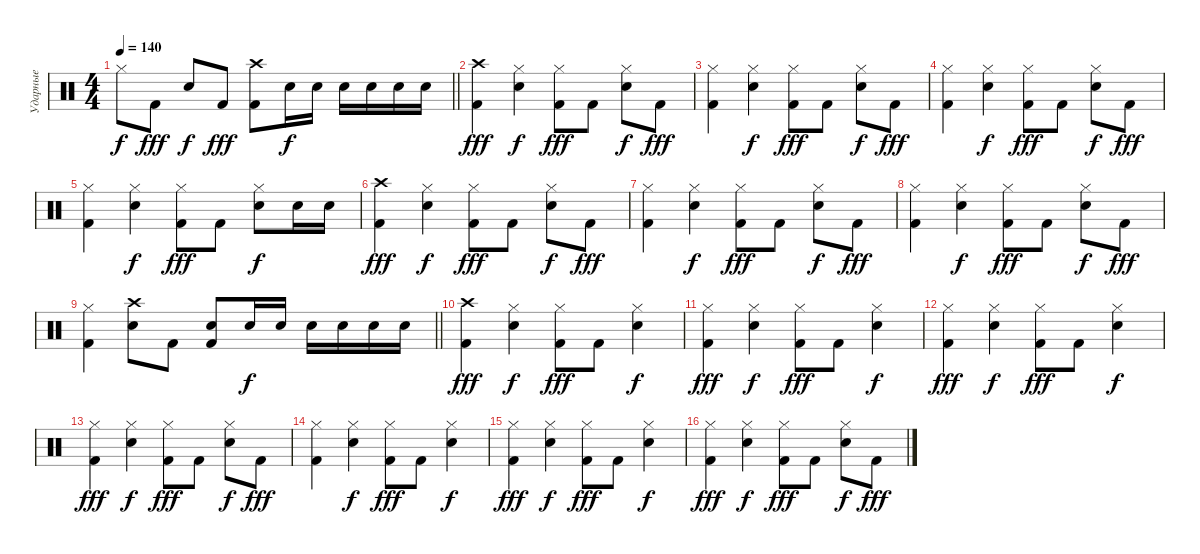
\track ("Ударные" "Ударные") {instrument percussion}
\staff {score}
\articulation defaults
\ts (4 4)
\tempo 140
\clef neutral
\barLineRight lightlight
\ks c "Hi-Hat (closed)".8{dy f} "Kick (hit) 2".8{dy fff} "Snare (hit) 2".8{dy f} "Kick (hit) 2".8{dy fff}
("Kick (hit) 2" "Crash high (hit)").8 "Snare (hit) 2".16{dy f} "Snare (hit) 2".16 "Snare (hit) 2".16 "Snare (hit) 2".16 "Snare (hit) 2".16 "Snare (hit) 2".16 |
("Kick (hit) 2" "Crash high (hit)").4{dy fff} ("Snare (hit) 2" "Hi-Hat (closed)").4{dy f} ("Kick (hit) 2" "Hi-Hat (closed)").8{dy fff} "Kick (hit) 2".8 ("Snare (hit) 2" "Hi-Hat (closed)").8{dy f} "Kick (hit) 2".8{dy fff} |
("Kick (hit) 2" "Hi-Hat (closed)").4 ("Snare (hit) 2" "Hi-Hat (closed)").4{dy f} ("Kick (hit) 2" "Hi-Hat (closed)").8{dy fff} "Kick (hit) 2".8 ("Snare (hit) 2" "Hi-Hat (closed)").8{dy f} "Kick (hit) 2".8{dy fff} |
("Kick (hit) 2" "Hi-Hat (closed)").4 ("Snare (hit) 2" "Hi-Hat (closed)").4{dy f} ("Kick (hit) 2" "Hi-Hat (closed)").8{dy fff} "Kick (hit) 2".8 ("Snare (hit) 2" "Hi-Hat (closed)").8{dy f} "Kick (hit) 2".8{dy fff} |
("Kick (hit) 2" "Hi-Hat (closed)").4 ("Snare (hit) 2" "Hi-Hat (closed)").4{dy f} ("Kick (hit) 2" "Hi-Hat (closed)").8{dy fff} "Kick (hit) 2".8 ("Snare (hit) 2" "Hi-Hat (closed)").8{dy f} "Snare (hit) 2".16 "Snare (hit) 2".16 |
("Kick (hit) 2" "Crash high (hit)").4{dy fff} ("Snare (hit) 2" "Hi-Hat (closed)").4{dy f} ("Kick (hit) 2" "Hi-Hat (closed)").8{dy fff} "Kick (hit) 2".8 ("Snare (hit) 2" "Hi-Hat (closed)").8{dy f} "Kick (hit) 2".8{dy fff} |
("Kick (hit) 2" "Hi-Hat (closed)").4 ("Snare (hit) 2" "Hi-Hat (closed)").4{dy f} ("Kick (hit) 2" "Hi-Hat (closed)").8{dy fff} "Kick (hit) 2".8 ("Snare (hit) 2" "Hi-Hat (closed)").8{dy f} "Kick (hit) 2".8{dy fff} |
("Kick (hit) 2" "Hi-Hat (closed)").4 ("Snare (hit) 2" "Hi-Hat (closed)").4{dy f} ("Kick (hit) 2" "Hi-Hat (closed)").8{dy fff} "Kick (hit) 2".8 ("Snare (hit) 2" "Hi-Hat (closed)").8{dy f} "Kick (hit) 2".8{dy fff} |
\barLineRight lightlight
("Kick (hit) 2" "Hi-Hat (closed)").4 ("Snare (hit) 2" "Crash high (hit)").8 "Kick (hit) 2".8 ("Kick (hit) 2" "Snare (hit) 2").8 "Snare (hit) 2".16{dy f} "Snare (hit) 2".16 "Snare (hit) 2".16 "Snare (hit) 2".16 "Snare (hit) 2".16 "Snare (hit) 2".16 |
("Kick (hit) 2" "Crash high (hit)").4{dy fff} ("Snare (hit) 2" "Hi-Hat (closed)").4{dy f} ("Kick (hit) 2" "Hi-Hat (closed)").8{dy fff} "Kick (hit) 2".8 ("Snare (hit) 2" "Hi-Hat (closed)").4{dy f} |
("Kick (hit) 2" "Hi-Hat (closed)").4{dy fff} ("Snare (hit) 2" "Hi-Hat (closed)").4{dy f} ("Kick (hit) 2" "Hi-Hat (closed)").8{dy fff} "Kick (hit) 2".8 ("Snare (hit) 2" "Hi-Hat (closed)").4{dy f} |
("Kick (hit) 2" "Hi-Hat (closed)").4{dy fff} ("Snare (hit) 2" "Hi-Hat (closed)").4{dy f} ("Kick (hit) 2" "Hi-Hat (closed)").8{dy fff} "Kick (hit) 2".8 ("Snare (hit) 2" "Hi-Hat (closed)").4{dy f} |
("Kick (hit) 2" "Hi-Hat (closed)").4{dy fff} ("Snare (hit) 2" "Hi-Hat (closed)").4{dy f} ("Kick (hit) 2" "Hi-Hat (closed)").8{dy fff} "Kick (hit) 2".8 ("Snare (hit) 2" "Hi-Hat (closed)").8{dy f} "Kick (hit) 2".8{dy fff} |
("Kick (hit) 2" "Hi-Hat (closed)").4 ("Snare (hit) 2" "Hi-Hat (closed)").4{dy f} ("Kick (hit) 2" "Hi-Hat (closed)").8{dy fff} "Kick (hit) 2".8 ("Snare (hit) 2" "Hi-Hat (closed)").4{dy f} |
("Kick (hit) 2" "Hi-Hat (closed)").4{dy fff} ("Snare (hit) 2" "Hi-Hat (closed)").4{dy f} ("Kick (hit) 2" "Hi-Hat (closed)").8{dy fff} "Kick (hit) 2".8 ("Snare (hit) 2" "Hi-Hat (closed)").4{dy f} |
("Kick (hit) 2" "Hi-Hat (closed)").4{dy fff} ("Snare (hit) 2" "Hi-Hat (closed)").4{dy f} ("Kick (hit) 2" "Hi-Hat (closed)").8{dy fff} "Kick (hit) 2".8 ("Snare (hit) 2" "Hi-Hat (closed)").8{dy f} "Kick (hit) 2".8{dy fff}
